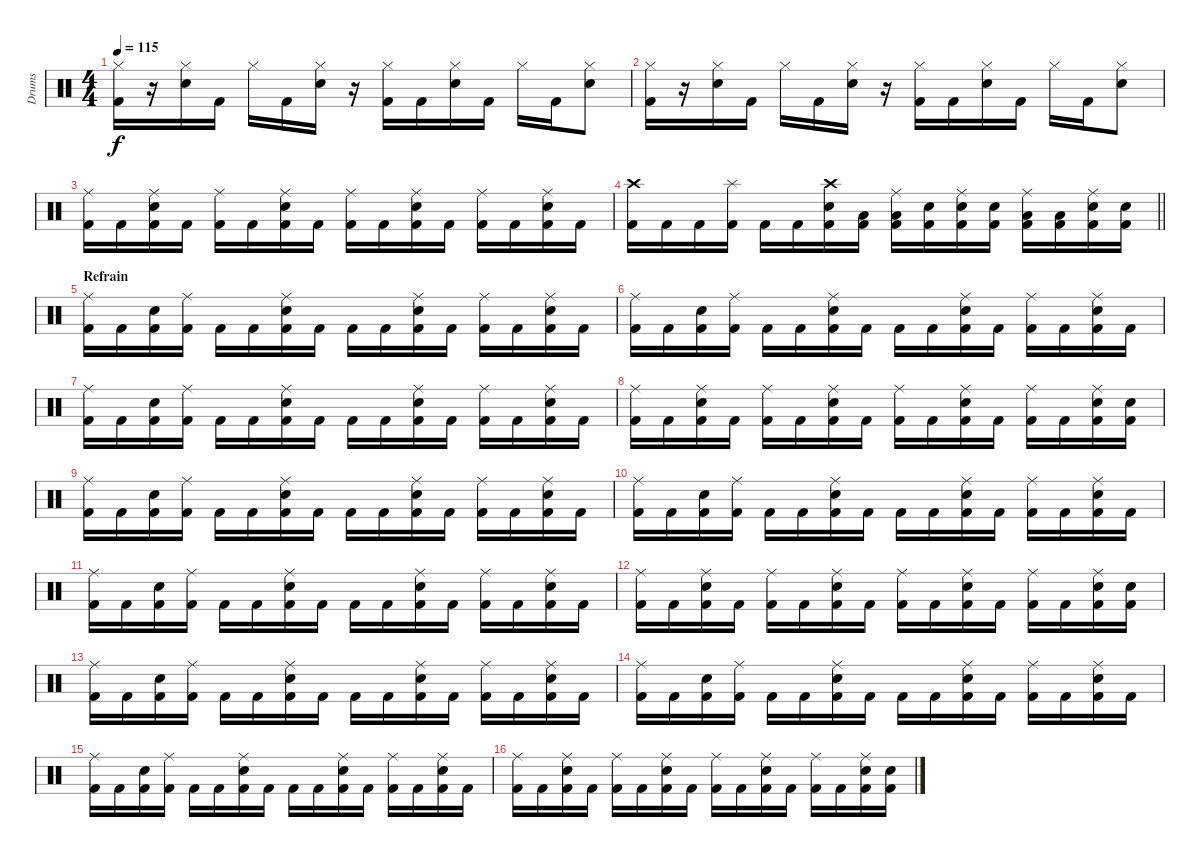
\track ("Drums" "Drums") {instrument percussion}
\staff {score}
\articulation defaults
\ts (4 4)
\tempo 115
\clef neutral
\ks c
("Hi-Hat (closed)" "Kick (hit) 2").16{dy f} r.16 ("Hi-Hat (closed)" "Electric Snare (hit)").16 "Kick (hit) 2".16 "Hi-Hat (closed)".16 "Kick (hit) 2".16 ("Hi-Hat (closed)" "Electric Snare (hit)").16 r.16 ("Hi-Hat (closed)" "Kick (hit) 2").16 "Kick (hit) 2".16 ("Hi-Hat (closed)" "Electric Snare (hit)").16 "Kick (hit) 2".16 "Hi-Hat (closed)".16 "Kick (hit) 2".16 ("Hi-Hat (closed)" "Electric Snare (hit)").8 |
("Hi-Hat (closed)" "Kick (hit) 2").16 r.16 ("Hi-Hat (closed)" "Electric Snare (hit)").16 "Kick (hit) 2".16 "Hi-Hat (closed)".16 "Kick (hit) 2".16 ("Hi-Hat (closed)" "Electric Snare (hit)").16 r.16 ("Hi-Hat (closed)" "Kick (hit) 2").16 "Kick (hit) 2".16 ("Hi-Hat (closed)" "Electric Snare (hit)").16 "Kick (hit) 2".16 "Hi-Hat (closed)".16 "Kick (hit) 2".16 ("Hi-Hat (closed)" "Electric Snare (hit)").8 |
("Ride (middle)" "Kick (hit) 2").16 "Kick (hit) 2".16 ("Ride (middle)" "Electric Snare (hit)" "Kick (hit) 2").16 "Kick (hit) 2".16 ("Ride (middle)" "Kick (hit) 2").16 "Kick (hit) 2".16 ("Ride (middle)" "Electric Snare (hit)" "Kick (hit) 2").16 "Kick (hit) 2".16 ("Ride (middle)" "Kick (hit) 2").16 "Kick (hit) 2".16 ("Ride (middle)" "Electric Snare (hit)" "Kick (hit) 2").16 "Kick (hit) 2".16 ("Ride (middle)" "Kick (hit) 2").16 "Kick (hit) 2".16 ("Ride (middle)" "Electric Snare (hit)" "Kick (hit) 2").16 "Kick (hit) 2".16 |
\barLineRight lightlight
("Crash high (hit)" "Kick (hit) 2").16 "Kick (hit) 2".16 "Kick (hit) 2".16 ("Splash (hit)" "Kick (hit) 2").16 "Kick (hit) 2".16 "Kick (hit) 2".16 ("Crash high (hit)" "Electric Snare (hit)" "Kick (hit) 2").16 ("Low Tom (hit)" "Kick (hit) 2").16 ("Ride (middle)" "Low Tom (hit)" "Kick (hit) 2").16 ("Electric Snare (hit)" "Kick (hit) 2").16 ("Ride (middle)" "Electric Snare (hit)" "Kick (hit) 2").16 ("Electric Snare (hit)" "Kick (hit) 2").16 ("Ride (middle)" "Low Tom (hit)" "Kick (hit) 2").16 ("Low Tom (hit)" "Kick (hit) 2").16 ("Ride (middle)" "Electric Snare (hit)" "Kick (hit) 2").16 ("Electric Snare (hit)" "Kick (hit) 2").16 |
\section ("" "Refrain")
("Ride (middle)" "Kick (hit) 2").16 "Kick (hit) 2".16 ("Electric Snare (hit)" "Kick (hit) 2").16 ("Ride (middle)" "Kick (hit) 2").16 "Kick (hit) 2".16 "Kick (hit) 2".16 ("Ride (middle)" "Electric Snare (hit)" "Kick (hit) 2").16 "Kick (hit) 2".16 "Kick (hit) 2".16 "Kick (hit) 2".16 ("Ride (middle)" "Electric Snare (hit)" "Kick (hit) 2").16 "Kick (hit) 2".16 ("Ride (middle)" "Kick (hit) 2").16 "Kick (hit) 2".16 ("Ride (middle)" "Electric Snare (hit)" "Kick (hit) 2").16 "Kick (hit) 2".16 |
("Ride (middle)" "Kick (hit) 2").16 "Kick (hit) 2".16 ("Electric Snare (hit)" "Kick (hit) 2").16 ("Ride (middle)" "Kick (hit) 2").16 "Kick (hit) 2".16 "Kick (hit) 2".16 ("Ride (middle)" "Electric Snare (hit)" "Kick (hit) 2").16 "Kick (hit) 2".16 "Kick (hit) 2".16 "Kick (hit) 2".16 ("Ride (middle)" "Electric Snare (hit)" "Kick (hit) 2").16 "Kick (hit) 2".16 ("Ride (middle)" "Kick (hit) 2").16 "Kick (hit) 2".16 ("Ride (middle)" "Electric Snare (hit)" "Kick (hit) 2").16 "Kick (hit) 2".16 |
("Ride (middle)" "Kick (hit) 2").16 "Kick (hit) 2".16 ("Electric Snare (hit)" "Kick (hit) 2").16 ("Ride (middle)" "Kick (hit) 2").16 "Kick (hit) 2".16 "Kick (hit) 2".16 ("Ride (middle)" "Electric Snare (hit)" "Kick (hit) 2").16 "Kick (hit) 2".16 "Kick (hit) 2".16 "Kick (hit) 2".16 ("Ride (middle)" "Electric Snare (hit)" "Kick (hit) 2").16 "Kick (hit) 2".16 ("Ride (middle)" "Kick (hit) 2").16 "Kick (hit) 2".16 ("Ride (middle)" "Electric Snare (hit)" "Kick (hit) 2").16 "Kick (hit) 2".16 |
("Ride (middle)" "Kick (hit) 2").16 "Kick (hit) 2".16 ("Ride (middle)" "Electric Snare (hit)" "Kick (hit) 2").16 "Kick (hit) 2".16 ("Ride (middle)" "Kick (hit) 2").16 "Kick (hit) 2".16 ("Ride (middle)" "Electric Snare (hit)" "Kick (hit) 2").16 "Kick (hit) 2".16 ("Ride (middle)" "Kick (hit) 2").16 "Kick (hit) 2".16 ("Ride (middle)" "Electric Snare (hit)" "Kick (hit) 2").16 "Kick (hit) 2".16 ("Ride (middle)" "Kick (hit) 2").16 "Kick (hit) 2".16 ("Ride (middle)" "Electric Snare (hit)" "Kick (hit) 2").16 ("Electric Snare (hit)" "Kick (hit) 2").16 |
("Ride (middle)" "Kick (hit) 2").16 "Kick (hit) 2".16 ("Electric Snare (hit)" "Kick (hit) 2").16 ("Ride (middle)" "Kick (hit) 2").16 "Kick (hit) 2".16 "Kick (hit) 2".16 ("Ride (middle)" "Electric Snare (hit)" "Kick (hit) 2").16 "Kick (hit) 2".16 "Kick (hit) 2".16 "Kick (hit) 2".16 ("Ride (middle)" "Electric Snare (hit)" "Kick (hit) 2").16 "Kick (hit) 2".16 ("Ride (middle)" "Kick (hit) 2").16 "Kick (hit) 2".16 ("Ride (middle)" "Electric Snare (hit)" "Kick (hit) 2").16 "Kick (hit) 2".16 |
("Ride (middle)" "Kick (hit) 2").16 "Kick (hit) 2".16 ("Electric Snare (hit)" "Kick (hit) 2").16 ("Ride (middle)" "Kick (hit) 2").16 "Kick (hit) 2".16 "Kick (hit) 2".16 ("Ride (middle)" "Electric Snare (hit)" "Kick (hit) 2").16 "Kick (hit) 2".16 "Kick (hit) 2".16 "Kick (hit) 2".16 ("Ride (middle)" "Electric Snare (hit)" "Kick (hit) 2").16 "Kick (hit) 2".16 ("Ride (middle)" "Kick (hit) 2").16 "Kick (hit) 2".16 ("Ride (middle)" "Electric Snare (hit)" "Kick (hit) 2").16 "Kick (hit) 2".16 |
("Ride (middle)" "Kick (hit) 2").16 "Kick (hit) 2".16 ("Electric Snare (hit)" "Kick (hit) 2").16 ("Ride (middle)" "Kick (hit) 2").16 "Kick (hit) 2".16 "Kick (hit) 2".16 ("Ride (middle)" "Electric Snare (hit)" "Kick (hit) 2").16 "Kick (hit) 2".16 "Kick (hit) 2".16 "Kick (hit) 2".16 ("Ride (middle)" "Electric Snare (hit)" "Kick (hit) 2").16 "Kick (hit) 2".16 ("Ride (middle)" "Kick (hit) 2").16 "Kick (hit) 2".16 ("Ride (middle)" "Electric Snare (hit)" "Kick (hit) 2").16 "Kick (hit) 2".16 |
("Ride (middle)" "Kick (hit) 2").16 "Kick (hit) 2".16 ("Ride (middle)" "Electric Snare (hit)" "Kick (hit) 2").16 "Kick (hit) 2".16 ("Ride (middle)" "Kick (hit) 2").16 "Kick (hit) 2".16 ("Ride (middle)" "Electric Snare (hit)" "Kick (hit) 2").16 "Kick (hit) 2".16 ("Ride (middle)" "Kick (hit) 2").16 "Kick (hit) 2".16 ("Ride (middle)" "Electric Snare (hit)" "Kick (hit) 2").16 "Kick (hit) 2".16 ("Ride (middle)" "Kick (hit) 2").16 "Kick (hit) 2".16 ("Ride (middle)" "Electric Snare (hit)" "Kick (hit) 2").16 ("Electric Snare (hit)" "Kick (hit) 2").16 |
("Ride (middle)" "Kick (hit) 2").16 "Kick (hit) 2".16 ("Electric Snare (hit)" "Kick (hit) 2").16 ("Ride (middle)" "Kick (hit) 2").16 "Kick (hit) 2".16 "Kick (hit) 2".16 ("Ride (middle)" "Electric Snare (hit)" "Kick (hit) 2").16 "Kick (hit) 2".16 "Kick (hit) 2".16 "Kick (hit) 2".16 ("Ride (middle)" "Electric Snare (hit)" "Kick (hit) 2").16 "Kick (hit) 2".16 ("Ride (middle)" "Kick (hit) 2").16 "Kick (hit) 2".16 ("Ride (middle)" "Electric Snare (hit)" "Kick (hit) 2").16 "Kick (hit) 2".16 |
("Ride (middle)" "Kick (hit) 2").16 "Kick (hit) 2".16 ("Electric Snare (hit)" "Kick (hit) 2").16 ("Ride (middle)" "Kick (hit) 2").16 "Kick (hit) 2".16 "Kick (hit) 2".16 ("Ride (middle)" "Electric Snare (hit)" "Kick (hit) 2").16 "Kick (hit) 2".16 "Kick (hit) 2".16 "Kick (hit) 2".16 ("Ride (middle)" "Electric Snare (hit)" "Kick (hit) 2").16 "Kick (hit) 2".16 ("Ride (middle)" "Kick (hit) 2").16 "Kick (hit) 2".16 ("Ride (middle)" "Electric Snare (hit)" "Kick (hit) 2").16 "Kick (hit) 2".16 |
("Ride (middle)" "Kick (hit) 2").16 "Kick (hit) 2".16 ("Electric Snare (hit)" "Kick (hit) 2").16 ("Ride (middle)" "Kick (hit) 2").16 "Kick (hit) 2".16 "Kick (hit) 2".16 ("Ride (middle)" "Electric Snare (hit)" "Kick (hit) 2").16 "Kick (hit) 2".16 "Kick (hit) 2".16 "Kick (hit) 2".16 ("Ride (middle)" "Electric Snare (hit)" "Kick (hit) 2").16 "Kick (hit) 2".16 ("Ride (middle)" "Kick (hit) 2").16 "Kick (hit) 2".16 ("Ride (middle)" "Electric Snare (hit)" "Kick (hit) 2").16 "Kick (hit) 2".16 |
("Ride (middle)" "Kick (hit) 2").16 "Kick (hit) 2".16 ("Ride (middle)" "Electric Snare (hit)" "Kick (hit) 2").16 "Kick (hit) 2".16 ("Ride (middle)" "Kick (hit) 2").16 "Kick (hit) 2".16 ("Ride (middle)" "Electric Snare (hit)" "Kick (hit) 2").16 "Kick (hit) 2".16 ("Ride (middle)" "Kick (hit) 2").16 "Kick (hit) 2".16 ("Ride (middle)" "Electric Snare (hit)" "Kick (hit) 2").16 "Kick (hit) 2".16 ("Ride (middle)" "Kick (hit) 2").16 "Kick (hit) 2".16 ("Ride (middle)" "Electric Snare (hit)" "Kick (hit) 2").16 ("Electric Snare (hit)" "Kick (hit) 2").16
